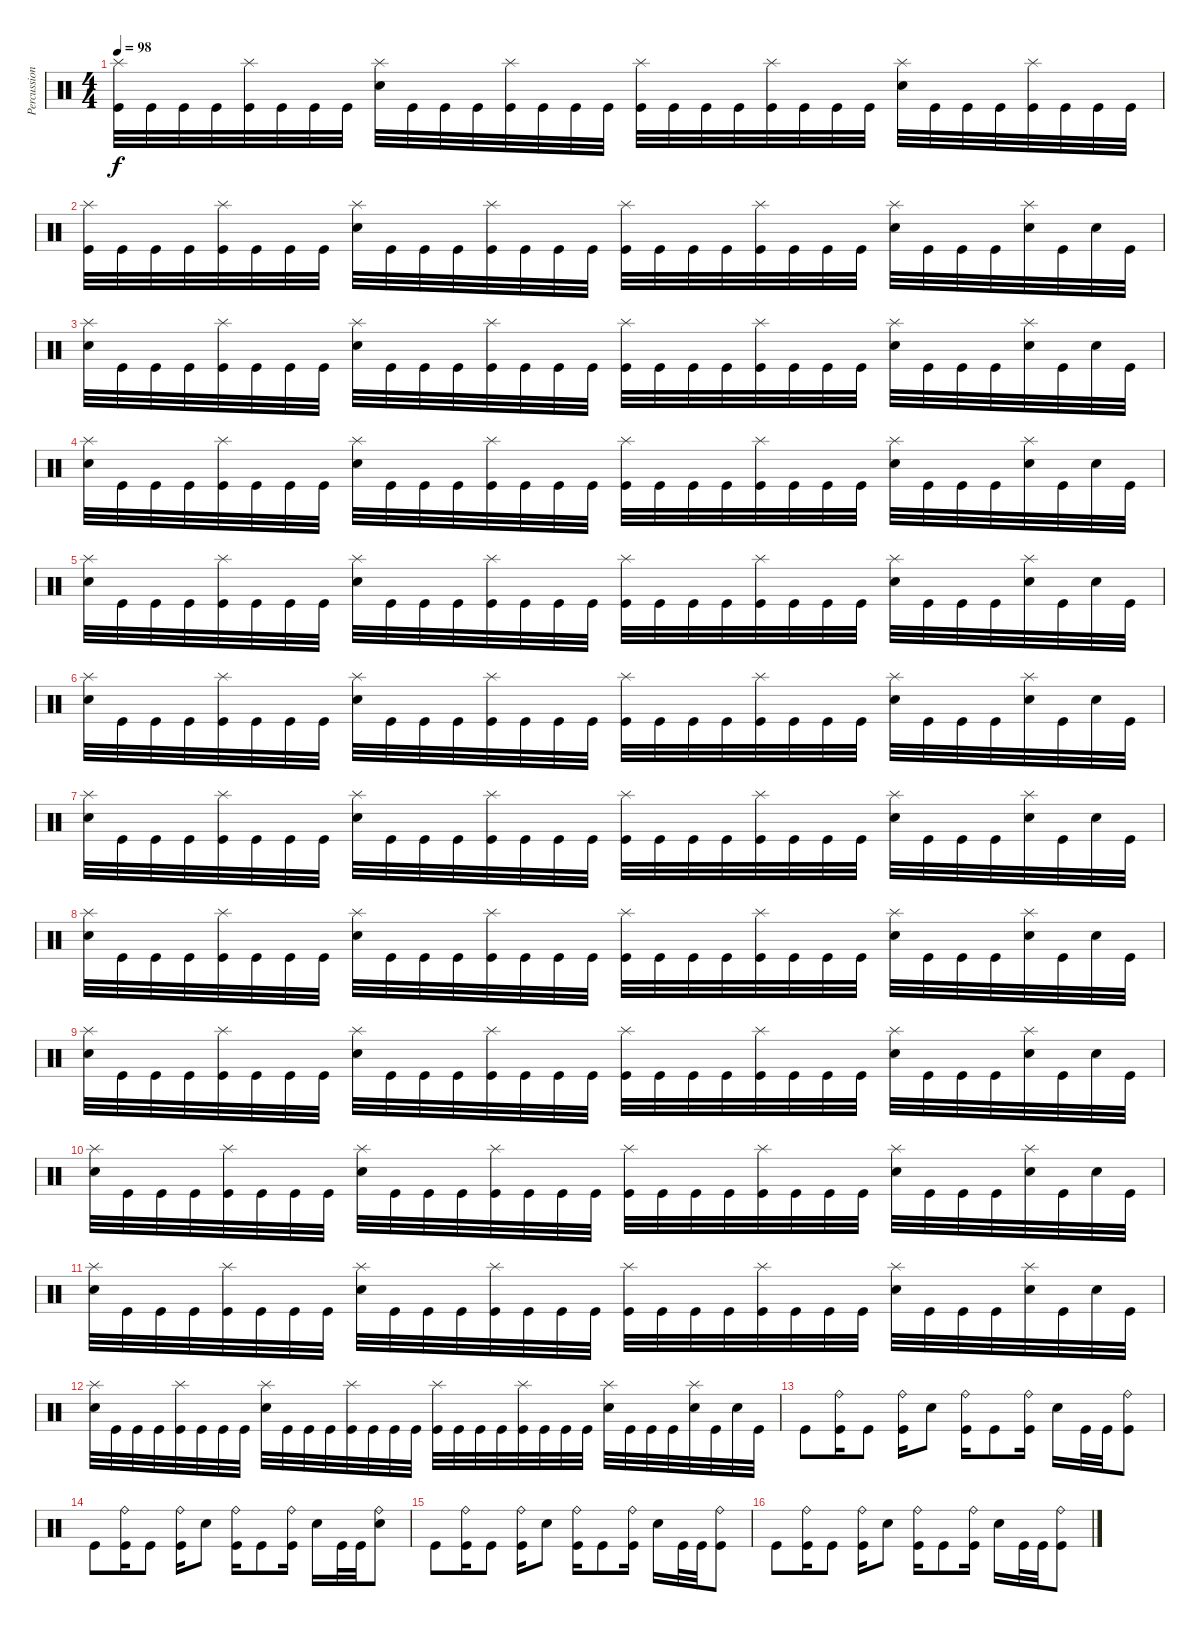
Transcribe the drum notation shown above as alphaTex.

\track ("Percussions" "Percussion") {instrument percussion}
\staff {score}
\articulation defaults
\ts (4 4)
\tempo 98
\clef neutral
\ks c
("Splash (hit)" "Kick (hit)").32{dy f} "Kick (hit)".32 "Kick (hit)".32 "Kick (hit)".32 ("Splash (hit)" "Kick (hit)").32 "Kick (hit)".32 "Kick (hit)".32 "Kick (hit)".32 ("Splash (hit)" "Snare (hit) 2").32 "Kick (hit)".32 "Kick (hit)".32 "Kick (hit)".32 ("Splash (hit)" "Kick (hit)").32 "Kick (hit)".32 "Kick (hit)".32 "Kick (hit)".32 ("Splash (hit)" "Kick (hit)").32 "Kick (hit)".32 "Kick (hit)".32 "Kick (hit)".32 ("Splash (hit)" "Kick (hit)").32 "Kick (hit)".32 "Kick (hit)".32 "Kick (hit)".32 ("Splash (hit)" "Snare (hit) 2").32 "Kick (hit)".32 "Kick (hit)".32 "Kick (hit)".32 ("Splash (hit)" "Kick (hit)").32 "Kick (hit)".32 "Kick (hit)".32 "Kick (hit)".32 |
("Splash (hit)" "Kick (hit)").32 "Kick (hit)".32 "Kick (hit)".32 "Kick (hit)".32 ("Splash (hit)" "Kick (hit)").32 "Kick (hit)".32 "Kick (hit)".32 "Kick (hit)".32 ("Splash (hit)" "Snare (hit) 2").32 "Kick (hit)".32 "Kick (hit)".32 "Kick (hit)".32 ("Splash (hit)" "Kick (hit)").32 "Kick (hit)".32 "Kick (hit)".32 "Kick (hit)".32 ("Splash (hit)" "Kick (hit)").32 "Kick (hit)".32 "Kick (hit)".32 "Kick (hit)".32 ("Splash (hit)" "Kick (hit)").32 "Kick (hit)".32 "Kick (hit)".32 "Kick (hit)".32 ("Splash (hit)" "Snare (hit) 2").32 "Kick (hit)".32 "Kick (hit)".32 "Kick (hit)".32 ("Splash (hit)" "Snare (hit) 2").32 "Kick (hit)".32 "Snare (hit) 2".32 "Kick (hit)".32 |
("Splash (hit)" "Snare (hit) 2").32 "Kick (hit)".32 "Kick (hit)".32 "Kick (hit)".32 ("Splash (hit)" "Kick (hit)").32 "Kick (hit)".32 "Kick (hit)".32 "Kick (hit)".32 ("Splash (hit)" "Snare (hit) 2").32 "Kick (hit)".32 "Kick (hit)".32 "Kick (hit)".32 ("Splash (hit)" "Kick (hit)").32 "Kick (hit)".32 "Kick (hit)".32 "Kick (hit)".32 ("Splash (hit)" "Kick (hit)").32 "Kick (hit)".32 "Kick (hit)".32 "Kick (hit)".32 ("Splash (hit)" "Kick (hit)").32 "Kick (hit)".32 "Kick (hit)".32 "Kick (hit)".32 ("Splash (hit)" "Snare (hit) 2").32 "Kick (hit)".32 "Kick (hit)".32 "Kick (hit)".32 ("Splash (hit)" "Snare (hit) 2").32 "Kick (hit)".32 "Snare (hit) 2".32 "Kick (hit)".32 |
("Splash (hit)" "Snare (hit) 2").32 "Kick (hit)".32 "Kick (hit)".32 "Kick (hit)".32 ("Splash (hit)" "Kick (hit)").32 "Kick (hit)".32 "Kick (hit)".32 "Kick (hit)".32 ("Splash (hit)" "Snare (hit) 2").32 "Kick (hit)".32 "Kick (hit)".32 "Kick (hit)".32 ("Splash (hit)" "Kick (hit)").32 "Kick (hit)".32 "Kick (hit)".32 "Kick (hit)".32 ("Splash (hit)" "Kick (hit)").32 "Kick (hit)".32 "Kick (hit)".32 "Kick (hit)".32 ("Splash (hit)" "Kick (hit)").32 "Kick (hit)".32 "Kick (hit)".32 "Kick (hit)".32 ("Splash (hit)" "Snare (hit) 2").32 "Kick (hit)".32 "Kick (hit)".32 "Kick (hit)".32 ("Splash (hit)" "Snare (hit) 2").32 "Kick (hit)".32 "Snare (hit) 2".32 "Kick (hit)".32 |
("Splash (hit)" "Snare (hit) 2").32 "Kick (hit)".32 "Kick (hit)".32 "Kick (hit)".32 ("Splash (hit)" "Kick (hit)").32 "Kick (hit)".32 "Kick (hit)".32 "Kick (hit)".32 ("Splash (hit)" "Snare (hit) 2").32 "Kick (hit)".32 "Kick (hit)".32 "Kick (hit)".32 ("Splash (hit)" "Kick (hit)").32 "Kick (hit)".32 "Kick (hit)".32 "Kick (hit)".32 ("Splash (hit)" "Kick (hit)").32 "Kick (hit)".32 "Kick (hit)".32 "Kick (hit)".32 ("Splash (hit)" "Kick (hit)").32 "Kick (hit)".32 "Kick (hit)".32 "Kick (hit)".32 ("Splash (hit)" "Snare (hit) 2").32 "Kick (hit)".32 "Kick (hit)".32 "Kick (hit)".32 ("Splash (hit)" "Snare (hit) 2").32 "Kick (hit)".32 "Snare (hit) 2".32 "Kick (hit)".32 |
("Splash (hit)" "Snare (hit) 2").32 "Kick (hit)".32 "Kick (hit)".32 "Kick (hit)".32 ("Splash (hit)" "Kick (hit)").32 "Kick (hit)".32 "Kick (hit)".32 "Kick (hit)".32 ("Splash (hit)" "Snare (hit) 2").32 "Kick (hit)".32 "Kick (hit)".32 "Kick (hit)".32 ("Splash (hit)" "Kick (hit)").32 "Kick (hit)".32 "Kick (hit)".32 "Kick (hit)".32 ("Splash (hit)" "Kick (hit)").32 "Kick (hit)".32 "Kick (hit)".32 "Kick (hit)".32 ("Splash (hit)" "Kick (hit)").32 "Kick (hit)".32 "Kick (hit)".32 "Kick (hit)".32 ("Splash (hit)" "Snare (hit) 2").32 "Kick (hit)".32 "Kick (hit)".32 "Kick (hit)".32 ("Splash (hit)" "Snare (hit) 2").32 "Kick (hit)".32 "Snare (hit) 2".32 "Kick (hit)".32 |
("Splash (hit)" "Snare (hit) 2").32 "Kick (hit)".32 "Kick (hit)".32 "Kick (hit)".32 ("Splash (hit)" "Kick (hit)").32 "Kick (hit)".32 "Kick (hit)".32 "Kick (hit)".32 ("Splash (hit)" "Snare (hit) 2").32 "Kick (hit)".32 "Kick (hit)".32 "Kick (hit)".32 ("Splash (hit)" "Kick (hit)").32 "Kick (hit)".32 "Kick (hit)".32 "Kick (hit)".32 ("Splash (hit)" "Kick (hit)").32 "Kick (hit)".32 "Kick (hit)".32 "Kick (hit)".32 ("Splash (hit)" "Kick (hit)").32 "Kick (hit)".32 "Kick (hit)".32 "Kick (hit)".32 ("Splash (hit)" "Snare (hit) 2").32 "Kick (hit)".32 "Kick (hit)".32 "Kick (hit)".32 ("Splash (hit)" "Snare (hit) 2").32 "Kick (hit)".32 "Snare (hit) 2".32 "Kick (hit)".32 |
("Splash (hit)" "Snare (hit) 2").32 "Kick (hit)".32 "Kick (hit)".32 "Kick (hit)".32 ("Splash (hit)" "Kick (hit)").32 "Kick (hit)".32 "Kick (hit)".32 "Kick (hit)".32 ("Splash (hit)" "Snare (hit) 2").32 "Kick (hit)".32 "Kick (hit)".32 "Kick (hit)".32 ("Splash (hit)" "Kick (hit)").32 "Kick (hit)".32 "Kick (hit)".32 "Kick (hit)".32 ("Splash (hit)" "Kick (hit)").32 "Kick (hit)".32 "Kick (hit)".32 "Kick (hit)".32 ("Splash (hit)" "Kick (hit)").32 "Kick (hit)".32 "Kick (hit)".32 "Kick (hit)".32 ("Splash (hit)" "Snare (hit) 2").32 "Kick (hit)".32 "Kick (hit)".32 "Kick (hit)".32 ("Splash (hit)" "Snare (hit) 2").32 "Kick (hit)".32 "Snare (hit) 2".32 "Kick (hit)".32 |
("Splash (hit)" "Snare (hit) 2").32 "Kick (hit)".32 "Kick (hit)".32 "Kick (hit)".32 ("Splash (hit)" "Kick (hit)").32 "Kick (hit)".32 "Kick (hit)".32 "Kick (hit)".32 ("Splash (hit)" "Snare (hit) 2").32 "Kick (hit)".32 "Kick (hit)".32 "Kick (hit)".32 ("Splash (hit)" "Kick (hit)").32 "Kick (hit)".32 "Kick (hit)".32 "Kick (hit)".32 ("Splash (hit)" "Kick (hit)").32 "Kick (hit)".32 "Kick (hit)".32 "Kick (hit)".32 ("Splash (hit)" "Kick (hit)").32 "Kick (hit)".32 "Kick (hit)".32 "Kick (hit)".32 ("Splash (hit)" "Snare (hit) 2").32 "Kick (hit)".32 "Kick (hit)".32 "Kick (hit)".32 ("Splash (hit)" "Snare (hit) 2").32 "Kick (hit)".32 "Snare (hit) 2".32 "Kick (hit)".32 |
("Splash (hit)" "Snare (hit) 2").32 "Kick (hit)".32 "Kick (hit)".32 "Kick (hit)".32 ("Splash (hit)" "Kick (hit)").32 "Kick (hit)".32 "Kick (hit)".32 "Kick (hit)".32 ("Splash (hit)" "Snare (hit) 2").32 "Kick (hit)".32 "Kick (hit)".32 "Kick (hit)".32 ("Splash (hit)" "Kick (hit)").32 "Kick (hit)".32 "Kick (hit)".32 "Kick (hit)".32 ("Splash (hit)" "Kick (hit)").32 "Kick (hit)".32 "Kick (hit)".32 "Kick (hit)".32 ("Splash (hit)" "Kick (hit)").32 "Kick (hit)".32 "Kick (hit)".32 "Kick (hit)".32 ("Splash (hit)" "Snare (hit) 2").32 "Kick (hit)".32 "Kick (hit)".32 "Kick (hit)".32 ("Splash (hit)" "Snare (hit) 2").32 "Kick (hit)".32 "Snare (hit) 2".32 "Kick (hit)".32 |
("Splash (hit)" "Snare (hit) 2").32 "Kick (hit)".32 "Kick (hit)".32 "Kick (hit)".32 ("Splash (hit)" "Kick (hit)").32 "Kick (hit)".32 "Kick (hit)".32 "Kick (hit)".32 ("Splash (hit)" "Snare (hit) 2").32 "Kick (hit)".32 "Kick (hit)".32 "Kick (hit)".32 ("Splash (hit)" "Kick (hit)").32 "Kick (hit)".32 "Kick (hit)".32 "Kick (hit)".32 ("Splash (hit)" "Kick (hit)").32 "Kick (hit)".32 "Kick (hit)".32 "Kick (hit)".32 ("Splash (hit)" "Kick (hit)").32 "Kick (hit)".32 "Kick (hit)".32 "Kick (hit)".32 ("Splash (hit)" "Snare (hit) 2").32 "Kick (hit)".32 "Kick (hit)".32 "Kick (hit)".32 ("Splash (hit)" "Snare (hit) 2").32 "Kick (hit)".32 "Snare (hit) 2".32 "Kick (hit)".32 |
("Splash (hit)" "Snare (hit) 2").32 "Kick (hit)".32 "Kick (hit)".32 "Kick (hit)".32 ("Splash (hit)" "Kick (hit)").32 "Kick (hit)".32 "Kick (hit)".32 "Kick (hit)".32 ("Splash (hit)" "Snare (hit) 2").32 "Kick (hit)".32 "Kick (hit)".32 "Kick (hit)".32 ("Splash (hit)" "Kick (hit)").32 "Kick (hit)".32 "Kick (hit)".32 "Kick (hit)".32 ("Splash (hit)" "Kick (hit)").32 "Kick (hit)".32 "Kick (hit)".32 "Kick (hit)".32 ("Splash (hit)" "Kick (hit)").32 "Kick (hit)".32 "Kick (hit)".32 "Kick (hit)".32 ("Splash (hit)" "Snare (hit) 2").32 "Kick (hit)".32 "Kick (hit)".32 "Kick (hit)".32 ("Splash (hit)" "Snare (hit) 2").32 "Kick (hit)".32 "Snare (hit) 2".32 "Kick (hit)".32 |
"Kick (hit)".8 ("Ride (bell)" "Kick (hit)").16 "Kick (hit)".8 ("Ride (bell)" "Kick (hit)").16 "Snare (hit) 2".8 ("Ride (bell)" "Kick (hit)").16 "Kick (hit)".8 ("Ride (bell)" "Kick (hit)").16 "Snare (hit) 2".16 "Kick (hit)".32 "Kick (hit)".32 ("Ride (bell)" "Kick (hit)").8 |
"Kick (hit)".8 ("Ride (bell)" "Kick (hit)").16 "Kick (hit)".8 ("Ride (bell)" "Kick (hit)").16 "Snare (hit) 2".8 ("Ride (bell)" "Kick (hit)").16 "Kick (hit)".8 ("Ride (bell)" "Kick (hit)").16 "Snare (hit) 2".16 "Kick (hit)".32 "Kick (hit)".32 ("Ride (bell)" "Snare (hit) 2").8 |
"Kick (hit)".8 ("Ride (bell)" "Kick (hit)").16 "Kick (hit)".8 ("Ride (bell)" "Kick (hit)").16 "Snare (hit) 2".8 ("Ride (bell)" "Kick (hit)").16 "Kick (hit)".8 ("Ride (bell)" "Kick (hit)").16 "Snare (hit) 2".16 "Kick (hit)".32 "Kick (hit)".32 ("Ride (bell)" "Kick (hit)").8 |
"Kick (hit)".8 ("Ride (bell)" "Kick (hit)").16 "Kick (hit)".8 ("Ride (bell)" "Kick (hit)").16 "Snare (hit) 2".8 ("Ride (bell)" "Kick (hit)").16 "Kick (hit)".8 ("Ride (bell)" "Kick (hit)").16 "Snare (hit) 2".16 "Kick (hit)".32 "Kick (hit)".32 ("Ride (bell)" "Kick (hit)").8
